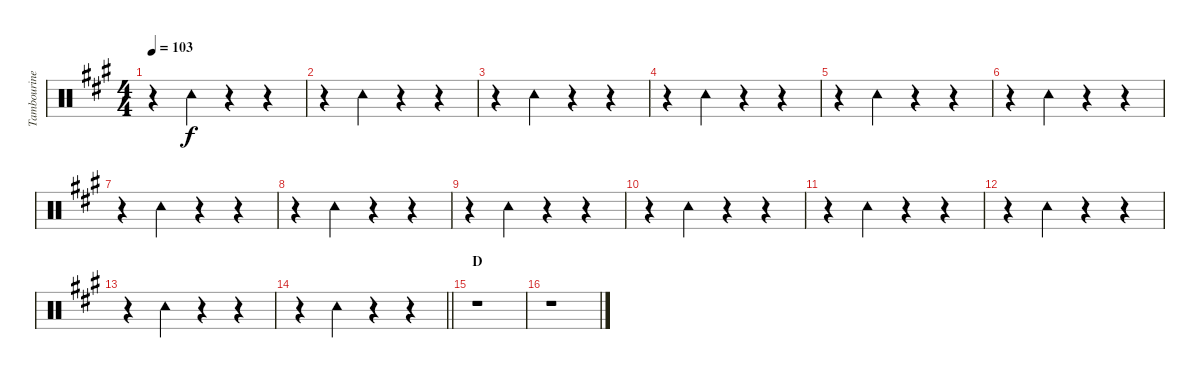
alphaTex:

\track ("Tambourine" "Tambourine") {instrument percussion}
\staff {score}
\articulation defaults
\ts (4 4)
\tempo 103
\clef neutral
\ks a
r.4{dy f} "Tambourine (hit)".4 r.4 r.4 |
r.4 "Tambourine (hit)".4 r.4 r.4 |
r.4 "Tambourine (hit)".4 r.4 r.4 |
r.4 "Tambourine (hit)".4 r.4 r.4 |
r.4 "Tambourine (hit)".4 r.4 r.4 |
r.4 "Tambourine (hit)".4 r.4 r.4 |
r.4 "Tambourine (hit)".4 r.4 r.4 |
r.4 "Tambourine (hit)".4 r.4 r.4 |
r.4 "Tambourine (hit)".4 r.4 r.4 |
r.4 "Tambourine (hit)".4 r.4 r.4 |
r.4 "Tambourine (hit)".4 r.4 r.4 |
r.4 "Tambourine (hit)".4 r.4 r.4 |
r.4 "Tambourine (hit)".4 r.4 r.4 |
\barLineRight lightlight
r.4 "Tambourine (hit)".4 r.4 r.4 |
\section ("" "D")
r.1 |
r.1
